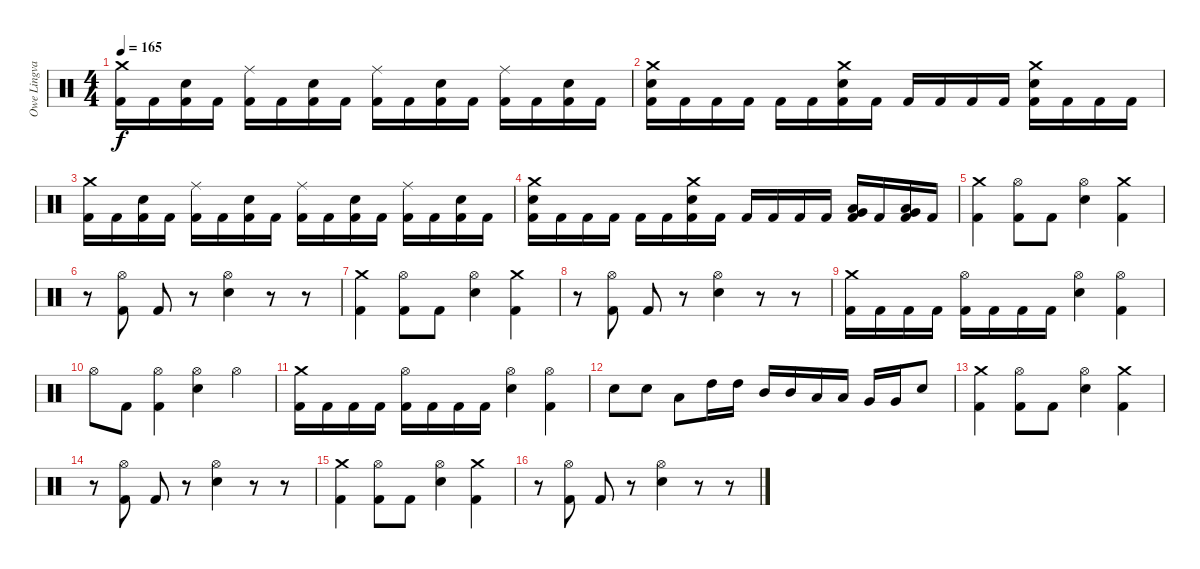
\track ("Owe Lingvall" "Owe Lingva") {instrument percussion}
\staff {score}
\articulation defaults
\ts (4 4)
\tempo 165
\clef neutral
\ks c
("Crash medium (hit)" "Kick (hit) 2").16{dy f} "Kick (hit) 2".16 ("Snare (hit) 2" "Kick (hit) 2").16 "Kick (hit) 2".16 ("Ride (middle)" "Kick (hit) 2").16 "Kick (hit) 2".16 ("Snare (hit) 2" "Kick (hit) 2").16 "Kick (hit) 2".16 ("Ride (middle)" "Kick (hit) 2").16 "Kick (hit) 2".16 ("Snare (hit) 2" "Kick (hit) 2").16 "Kick (hit) 2".16 ("Ride (middle)" "Kick (hit) 2").16 "Kick (hit) 2".16 ("Snare (hit) 2" "Kick (hit) 2").16 "Kick (hit) 2".16 |
("Crash medium (hit)" "Snare (hit) 2" "Kick (hit) 2").16 "Kick (hit) 2".16 "Kick (hit) 2".16 "Kick (hit) 2".16 "Kick (hit) 2".16 "Kick (hit) 2".16 ("Crash medium (hit)" "Snare (hit) 2" "Kick (hit) 2").16 "Kick (hit) 2".16 "Kick (hit) 2".16 "Kick (hit) 2".16 "Kick (hit) 2".16 "Kick (hit) 2".16 ("Crash medium (hit)" "Snare (hit) 2" "Kick (hit) 2").16 "Kick (hit) 2".16 "Kick (hit) 2".16 "Kick (hit) 2".16 |
("Crash medium (hit)" "Kick (hit) 2").16 "Kick (hit) 2".16 ("Snare (hit) 2" "Kick (hit) 2").16 "Kick (hit) 2".16 ("Ride (middle)" "Kick (hit) 2").16 "Kick (hit) 2".16 ("Snare (hit) 2" "Kick (hit) 2").16 "Kick (hit) 2".16 ("Ride (middle)" "Kick (hit) 2").16 "Kick (hit) 2".16 ("Snare (hit) 2" "Kick (hit) 2").16 "Kick (hit) 2".16 ("Ride (middle)" "Kick (hit) 2").16 "Kick (hit) 2".16 ("Snare (hit) 2" "Kick (hit) 2").16 "Kick (hit) 2".16 |
("Crash medium (hit)" "Snare (hit) 2" "Kick (hit) 2").16 "Kick (hit) 2".16 "Kick (hit) 2".16 "Kick (hit) 2".16 "Kick (hit) 2".16 "Kick (hit) 2".16 ("Crash medium (hit)" "Snare (hit) 2" "Kick (hit) 2").16 "Kick (hit) 2".16 "Kick (hit) 2".16 "Kick (hit) 2".16 "Kick (hit) 2".16 "Kick (hit) 2".16 ("Low Tom (hit)" "Very Low Tom (hit)" "Kick (hit) 2").16 "Kick (hit) 2".16 ("Very Low Tom (hit)" "Low Floor Tom (hit)" "Kick (hit) 2").16 "Kick (hit) 2".16 |
("Crash medium (hit)" "Kick (hit) 2").4 ("Hi-Hat (open)" "Kick (hit) 2").8 "Kick (hit) 2".8 ("Hi-Hat (open)" "Snare (hit) 2").4 ("Crash medium (hit)" "Kick (hit) 2").4 |
r.8 ("Hi-Hat (open)" "Kick (hit) 2").8 "Kick (hit) 2".8 r.8 ("Hi-Hat (open)" "Snare (hit) 2").4 r.8 r.8 |
("Crash medium (hit)" "Kick (hit) 2").4 ("Hi-Hat (open)" "Kick (hit) 2").8 "Kick (hit) 2".8 ("Hi-Hat (open)" "Snare (hit) 2").4 ("Crash medium (hit)" "Kick (hit) 2").4 |
r.8 ("Hi-Hat (open)" "Kick (hit) 2").8 "Kick (hit) 2".8 r.8 ("Hi-Hat (open)" "Snare (hit) 2").4 r.8 r.8 |
("Crash medium (hit)" "Kick (hit) 2").16 "Kick (hit) 2".16 "Kick (hit) 2".16 "Kick (hit) 2".16 ("Hi-Hat (open)" "Kick (hit) 2").16 "Kick (hit) 2".16 "Kick (hit) 2".16 "Kick (hit) 2".16 ("Hi-Hat (open)" "Snare (hit) 2").4 ("Hi-Hat (open)" "Kick (hit) 2").4 |
"Hi-Hat (open)".8 "Kick (hit) 2".8 ("Hi-Hat (open)" "Kick (hit) 2").4 ("Hi-Hat (open)" "Snare (hit) 2").4 "Hi-Hat (open)".4 |
("Crash medium (hit)" "Kick (hit) 2").16 "Kick (hit) 2".16 "Kick (hit) 2".16 "Kick (hit) 2".16 ("Hi-Hat (open)" "Kick (hit) 2").16 "Kick (hit) 2".16 "Kick (hit) 2".16 "Kick (hit) 2".16 ("Hi-Hat (open)" "Snare (hit) 2").4 ("Hi-Hat (open)" "Kick (hit) 2").4 |
"Snare (hit) 2".8 "Snare (hit) 2".8 "Low Tom (hit)".8 "High Tom (hit)".16 "High Tom (hit)".16 "Mid Tom (hit)".16 "Mid Tom (hit)".16 "Low Tom (hit)".16 "Low Tom (hit)".16 "Very Low Tom (hit)".16 "Very Low Tom (hit)".16 "Snare (hit) 2".8 |
("Crash medium (hit)" "Kick (hit) 2").4 ("Hi-Hat (open)" "Kick (hit) 2").8 "Kick (hit) 2".8 ("Hi-Hat (open)" "Snare (hit) 2").4 ("Crash medium (hit)" "Kick (hit) 2").4 |
r.8 ("Hi-Hat (open)" "Kick (hit) 2").8 "Kick (hit) 2".8 r.8 ("Hi-Hat (open)" "Snare (hit) 2").4 r.8 r.8 |
("Crash medium (hit)" "Kick (hit) 2").4 ("Hi-Hat (open)" "Kick (hit) 2").8 "Kick (hit) 2".8 ("Hi-Hat (open)" "Snare (hit) 2").4 ("Crash medium (hit)" "Kick (hit) 2").4 |
r.8 ("Hi-Hat (open)" "Kick (hit) 2").8 "Kick (hit) 2".8 r.8 ("Hi-Hat (open)" "Snare (hit) 2").4 r.8 r.8
